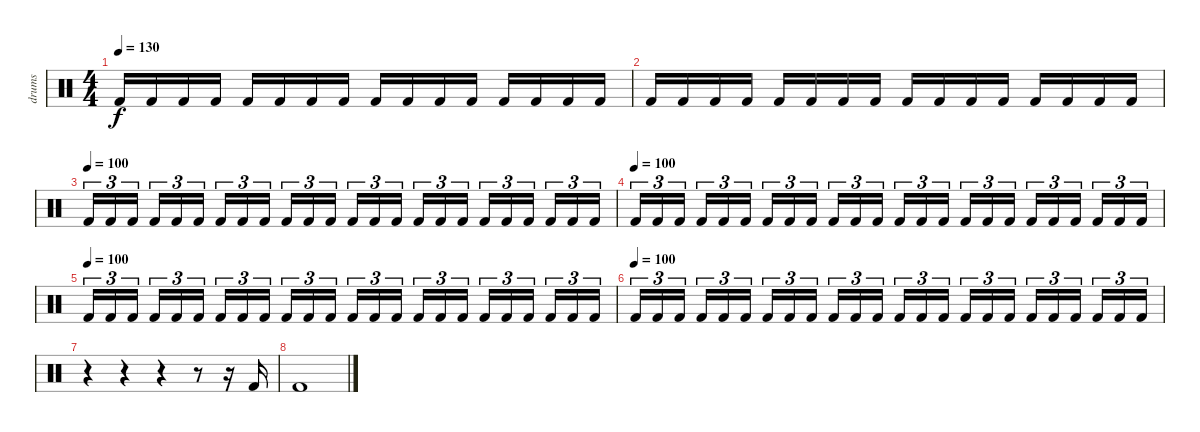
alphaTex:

\track ("drums" "drums") {instrument percussion}
\staff {score}
\articulation defaults
\ts (4 4)
\tempo 130
\clef neutral
\ks c "Kick (hit) 2".16{dy f} "Kick (hit) 2".16 "Kick (hit) 2".16 "Kick (hit) 2".16 "Kick (hit) 2".16 "Kick (hit) 2".16 "Kick (hit) 2".16 "Kick (hit) 2".16 "Kick (hit) 2".16 "Kick (hit) 2".16 "Kick (hit) 2".16 "Kick (hit) 2".16 "Kick (hit) 2".16 "Kick (hit) 2".16 "Kick (hit) 2".16 "Kick (hit) 2".16
|
"Kick (hit) 2".16 "Kick (hit) 2".16 "Kick (hit) 2".16 "Kick (hit) 2".16 "Kick (hit) 2".16 "Kick (hit) 2".16 "Kick (hit) 2".16 "Kick (hit) 2".16 "Kick (hit) 2".16 "Kick (hit) 2".16 "Kick (hit) 2".16 "Kick (hit) 2".16 "Kick (hit) 2".16 "Kick (hit) 2".16 "Kick (hit) 2".16 "Kick (hit) 2".16 |
\tempo (100)
"Kick (hit) 2".16{tu (3 2)} "Kick (hit) 2".16{tu (3 2)} "Kick (hit) 2".16{tu (3 2)} "Kick (hit) 2".16{tu (3 2)} "Kick (hit) 2".16{tu (3 2)} "Kick (hit) 2".16{tu (3 2)} "Kick (hit) 2".16{tu (3 2)} "Kick (hit) 2".16{tu (3 2)} "Kick (hit) 2".16{tu (3 2)} "Kick (hit) 2".16{tu (3 2)} "Kick (hit) 2".16{tu (3 2)} "Kick (hit) 2".16{tu (3 2)} "Kick (hit) 2".16{tu (3 2)} "Kick (hit) 2".16{tu (3 2)} "Kick (hit) 2".16{tu (3 2)} "Kick (hit) 2".16{tu (3 2)} "Kick (hit) 2".16{tu (3 2)} "Kick (hit) 2".16{tu (3 2)} "Kick (hit) 2".16{tu (3 2)} "Kick (hit) 2".16{tu (3 2)} "Kick (hit) 2".16{tu (3 2)} "Kick (hit) 2".16{tu (3 2)} "Kick (hit) 2".16{tu (3 2)} "Kick (hit) 2".16{tu (3 2)} |
\tempo (100)
"Kick (hit) 2".16{tu (3 2)} "Kick (hit) 2".16{tu (3 2)} "Kick (hit) 2".16{tu (3 2)} "Kick (hit) 2".16{tu (3 2)} "Kick (hit) 2".16{tu (3 2)} "Kick (hit) 2".16{tu (3 2)} "Kick (hit) 2".16{tu (3 2)} "Kick (hit) 2".16{tu (3 2)} "Kick (hit) 2".16{tu (3 2)} "Kick (hit) 2".16{tu (3 2)} "Kick (hit) 2".16{tu (3 2)} "Kick (hit) 2".16{tu (3 2)} "Kick (hit) 2".16{tu (3 2)} "Kick (hit) 2".16{tu (3 2)} "Kick (hit) 2".16{tu (3 2)} "Kick (hit) 2".16{tu (3 2)} "Kick (hit) 2".16{tu (3 2)} "Kick (hit) 2".16{tu (3 2)} "Kick (hit) 2".16{tu (3 2)} "Kick (hit) 2".16{tu (3 2)} "Kick (hit) 2".16{tu (3 2)} "Kick (hit) 2".16{tu (3 2)} "Kick (hit) 2".16{tu (3 2)} "Kick (hit) 2".16{tu (3 2)} |
\tempo (100)
"Kick (hit) 2".16{tu (3 2)} "Kick (hit) 2".16{tu (3 2)} "Kick (hit) 2".16{tu (3 2)} "Kick (hit) 2".16{tu (3 2)} "Kick (hit) 2".16{tu (3 2)} "Kick (hit) 2".16{tu (3 2)} "Kick (hit) 2".16{tu (3 2)} "Kick (hit) 2".16{tu (3 2)} "Kick (hit) 2".16{tu (3 2)} "Kick (hit) 2".16{tu (3 2)} "Kick (hit) 2".16{tu (3 2)} "Kick (hit) 2".16{tu (3 2)} "Kick (hit) 2".16{tu (3 2)} "Kick (hit) 2".16{tu (3 2)} "Kick (hit) 2".16{tu (3 2)} "Kick (hit) 2".16{tu (3 2)} "Kick (hit) 2".16{tu (3 2)} "Kick (hit) 2".16{tu (3 2)} "Kick (hit) 2".16{tu (3 2)} "Kick (hit) 2".16{tu (3 2)} "Kick (hit) 2".16{tu (3 2)} "Kick (hit) 2".16{tu (3 2)} "Kick (hit) 2".16{tu (3 2)} "Kick (hit) 2".16{tu (3 2)} |
\tempo (100)
"Kick (hit) 2".16{tu (3 2)} "Kick (hit) 2".16{tu (3 2)} "Kick (hit) 2".16{tu (3 2)} "Kick (hit) 2".16{tu (3 2)} "Kick (hit) 2".16{tu (3 2)} "Kick (hit) 2".16{tu (3 2)} "Kick (hit) 2".16{tu (3 2)} "Kick (hit) 2".16{tu (3 2)} "Kick (hit) 2".16{tu (3 2)} "Kick (hit) 2".16{tu (3 2)} "Kick (hit) 2".16{tu (3 2)} "Kick (hit) 2".16{tu (3 2)} "Kick (hit) 2".16{tu (3 2)} "Kick (hit) 2".16{tu (3 2)} "Kick (hit) 2".16{tu (3 2)} "Kick (hit) 2".16{tu (3 2)} "Kick (hit) 2".16{tu (3 2)} "Kick (hit) 2".16{tu (3 2)} "Kick (hit) 2".16{tu (3 2)} "Kick (hit) 2".16{tu (3 2)} "Kick (hit) 2".16{tu (3 2)} "Kick (hit) 2".16{tu (3 2)} "Kick (hit) 2".16{tu (3 2)} "Kick (hit) 2".16{tu (3 2)} |
r.4 r.4 r.4 r.8 r.16 "Kick (hit) 2".16 |
"Kick (hit) 2".1
